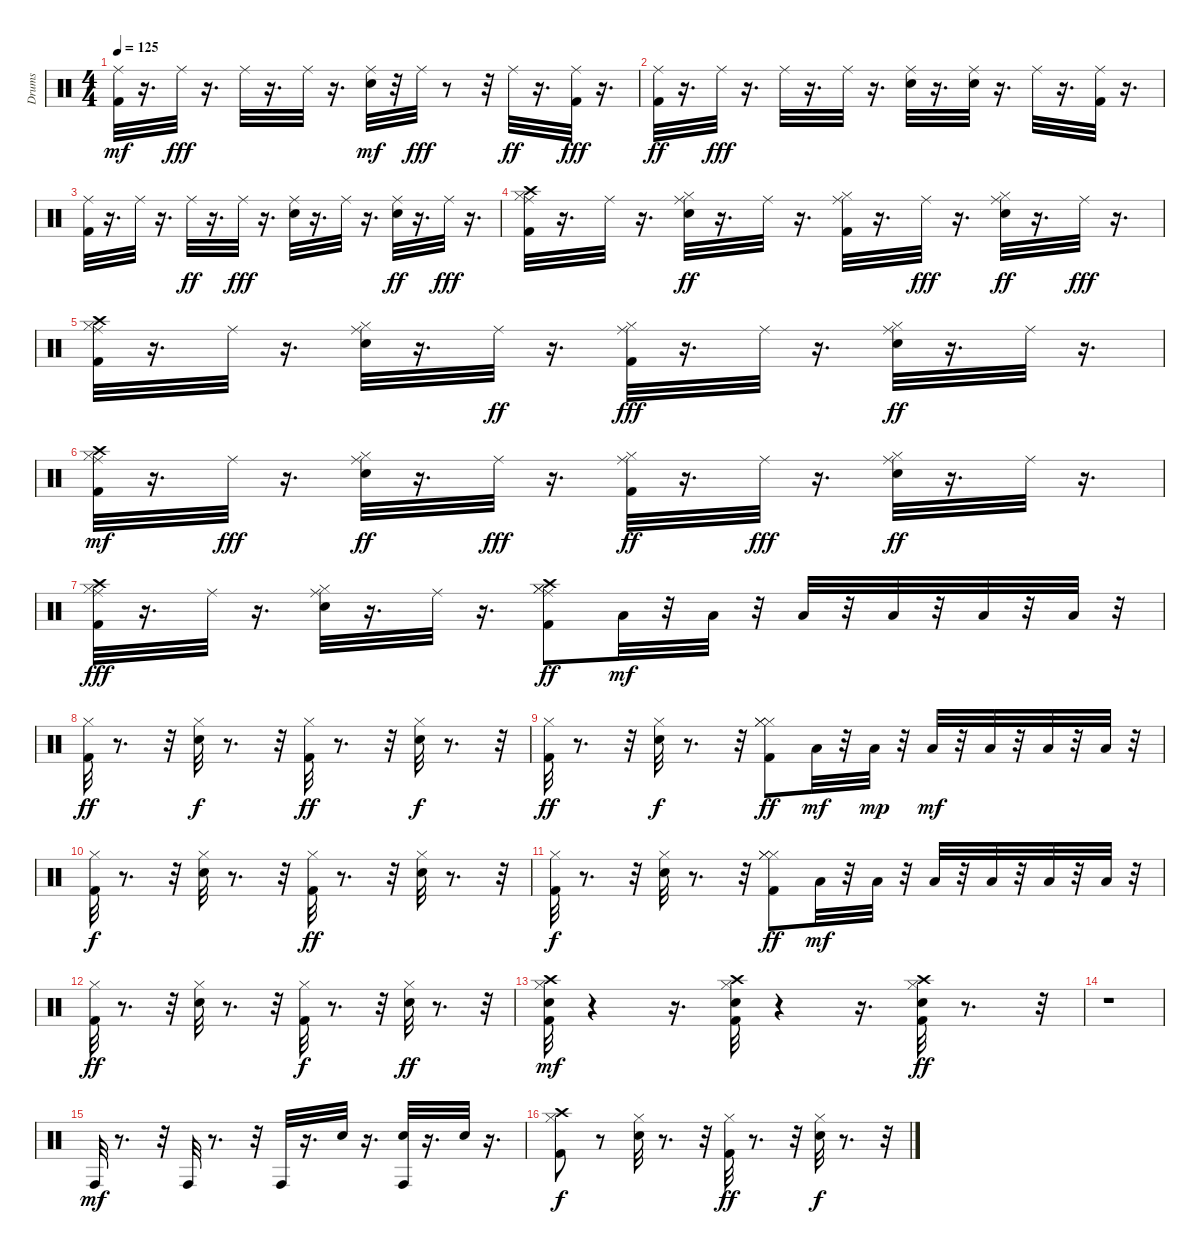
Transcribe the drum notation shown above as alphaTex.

\track ("Drums" "Drums") {instrument percussion}
\staff {score}
\articulation defaults
\ts (4 4)
\tempo 125
\clef neutral
\ks c
("Ride (middle)" "Kick (hit) 2").32{dy mf} r.16{d} "Ride (middle)".32{dy fff} r.16{d} "Ride (middle)".32 r.16{d} "Ride (middle)".32 r.16{d} ("Ride (middle)" "Snare (hit) 2").32{dy mf} r.32 "Ride (middle)".32{dy fff} r.8 r.32 "Ride (middle)".32{dy ff} r.16{d} ("Kick (hit) 2" "Ride (middle)").32{dy fff} r.16{d} |
("Kick (hit) 2" "Ride (middle)").32{dy ff} r.16{d} "Ride (middle)".32{dy fff} r.16{d} "Ride (middle)".32 r.16{d} "Ride (middle)".32 r.16{d} ("Snare (hit) 2" "Ride (middle)").32 r.16{d} ("Snare (hit) 2" "Ride (middle)").32 r.16{d} "Ride (middle)".32 r.16{d} ("Kick (hit) 2" "Ride (middle)").32 r.16{d} |
("Kick (hit) 2" "Ride (middle)").32 r.16{d} "Ride (middle)".32 r.16{d} "Ride (middle)".32{dy ff} r.16{d} "Ride (middle)".32{dy fff} r.16{d} ("Ride (middle)" "Snare (hit) 2").32 r.16{d} "Ride (middle)".32 r.16{d} ("Ride (middle)" "Snare (hit) 2").32{dy ff} r.16{d} "Ride (middle)".32{dy fff} r.16{d} |
("Hi-Hat (closed)" "Kick (hit) 2" "Crash high (hit)" "Ride (middle)").32 r.16{d} "Ride (middle)".32 r.16{d} ("Snare (hit) 2" "Ride (middle)" "Hi-Hat (closed)").32{dy ff} r.16{d} "Ride (middle)".32 r.16{d} ("Hi-Hat (closed)" "Ride (middle)" "Kick (hit) 2").32 r.16{d} "Ride (middle)".32{dy fff} r.16{d} ("Hi-Hat (closed)" "Ride (middle)" "Snare (hit) 2").32{dy ff} r.16{d} "Ride (middle)".32{dy fff} r.16{d} |
("Kick (hit) 2" "Hi-Hat (closed)" "Crash high (hit)" "Ride (middle)").32 r.16{d} "Ride (middle)".32 r.16{d} ("Snare (hit) 2" "Ride (middle)" "Hi-Hat (closed)").32 r.16{d} "Ride (middle)".32{dy ff} r.16{d} ("Kick (hit) 2" "Hi-Hat (closed)" "Ride (middle)").32{dy fff} r.16{d} "Ride (middle)".32 r.16{d} ("Ride (middle)" "Snare (hit) 2" "Hi-Hat (closed)").32{dy ff} r.16{d} "Ride (middle)".32 r.16{d} |
("Ride (middle)" "Hi-Hat (closed)" "Kick (hit) 2" "Crash high (hit)").32{dy mf} r.16{d} "Ride (middle)".32{dy fff} r.16{d} ("Snare (hit) 2" "Hi-Hat (closed)" "Ride (middle)").32{dy ff} r.16{d} "Ride (middle)".32{dy fff} r.16{d} ("Hi-Hat (closed)" "Kick (hit) 2" "Ride (middle)").32{dy ff} r.16{d} "Ride (middle)".32{dy fff} r.16{d} ("Ride (middle)" "Snare (hit) 2" "Hi-Hat (closed)").32{dy ff} r.16{d} "Ride (middle)".32 r.16{d} |
("Crash high (hit)" "Ride (middle)" "Hi-Hat (closed)" "Kick (hit) 2").32{dy fff} r.16{d} "Ride (middle)".32 r.16{d} ("Snare (hit) 2" "Hi-Hat (closed)" "Ride (middle)").32 r.16{d} "Ride (middle)".32 r.16{d} ("Hi-Hat (closed)" "Crash high (hit)" "Ride (middle)" "Hi-Hat (closed)" "Kick (hit) 2").8{dy ff} "Low Floor Tom (hit)".32{dy mf} r.32 "Low Floor Tom (hit)".32 r.32 "Low Floor Tom (hit)".32 r.32 "Low Floor Tom (hit)".32 r.32 "Low Floor Tom (hit)".32 r.32 "Low Floor Tom (hit)".32 r.32 |
("Kick (hit) 2" "Hi-Hat (closed)").32{dy ff} r.8{d} r.32 ("Hi-Hat (closed)" "Snare (hit) 2").32{dy f} r.8{d} r.32 ("Kick (hit) 2" "Hi-Hat (closed)").32{dy ff} r.8{d} r.32 ("Hi-Hat (closed)" "Snare (hit) 2").32{dy f} r.8{d} r.32 |
("Hi-Hat (closed)" "Kick (hit) 2").32{dy ff} r.8{d} r.32 ("Snare (hit) 2" "Hi-Hat (closed)").32{dy f} r.8{d} r.32 ("Hi-Hat (closed)" "Hi-Hat (closed)" "Kick (hit) 2" "Hi-Hat (closed)").8{dy ff} "Low Floor Tom (hit)".32{dy mf} r.32 "Low Floor Tom (hit)".32{dy mp} r.32 "Low Floor Tom (hit)".32{dy mf} r.32 "Low Floor Tom (hit)".32 r.32 "Low Floor Tom (hit)".32 r.32 "Low Floor Tom (hit)".32 r.32 |
("Hi-Hat (closed)" "Kick (hit) 2").32{dy f} r.8{d} r.32 ("Snare (hit) 2" "Hi-Hat (closed)").32 r.8{d} r.32 ("Hi-Hat (closed)" "Kick (hit) 2").32{dy ff} r.8{d} r.32 ("Snare (hit) 2" "Hi-Hat (closed)").32 r.8{d} r.32 |
("Hi-Hat (closed)" "Kick (hit) 2").32{dy f} r.8{d} r.32 ("Hi-Hat (closed)" "Snare (hit) 2").32 r.8{d} r.32 ("Hi-Hat (closed)" "Hi-Hat (closed)" "Kick (hit) 2" "Hi-Hat (closed)").8{dy ff} "Low Floor Tom (hit)".32{dy mf} r.32 "Low Floor Tom (hit)".32 r.32 "Low Floor Tom (hit)".32 r.32 "Low Floor Tom (hit)".32 r.32 "Low Floor Tom (hit)".32 r.32 "Low Floor Tom (hit)".32 r.32 |
("Kick (hit) 2" "Hi-Hat (closed)").32{dy ff} r.8{d} r.32 ("Snare (hit) 2" "Hi-Hat (closed)").32 r.8{d} r.32 ("Kick (hit) 2" "Hi-Hat (closed)").32{dy f} r.8{d} r.32 ("Snare (hit) 2" "Hi-Hat (closed)").32{dy ff} r.8{d} r.32 |
("Kick (hit) 2" "Hi-Hat (closed)" "Crash high (hit)" "Snare (hit) 2").32{dy mf} r.4 r.16{d} ("Hi-Hat (closed)" "Snare (hit) 2" "Kick (hit) 2" "Crash high (hit)").32 r.4 r.16{d} ("Snare (hit) 2" "Crash high (hit)" "Kick (hit) 2" "Hi-Hat (closed)").32{dy ff} r.8{d} r.32 |
r.1 |
"Conga high (hit)".32{dy mf} r.8{d} r.32 "Conga high (hit)".32 r.8{d} r.32 "Conga high (hit)".32 r.16{d} "Snare (hit) 2".32 r.16{d} ("Conga high (hit)" "Snare (hit) 2").32 r.16{d} "Snare (hit) 2".32 r.16{d} |
("Crash high (hit)" "Hi-Hat (closed)" "Kick (hit) 2").8{dy f} r.8 ("Hi-Hat (closed)" "Snare (hit) 2").32 r.8{d} r.32 ("Hi-Hat (closed)" "Kick (hit) 2").32{dy ff} r.8{d} r.32 ("Hi-Hat (closed)" "Snare (hit) 2").32{dy f} r.8{d} r.32
